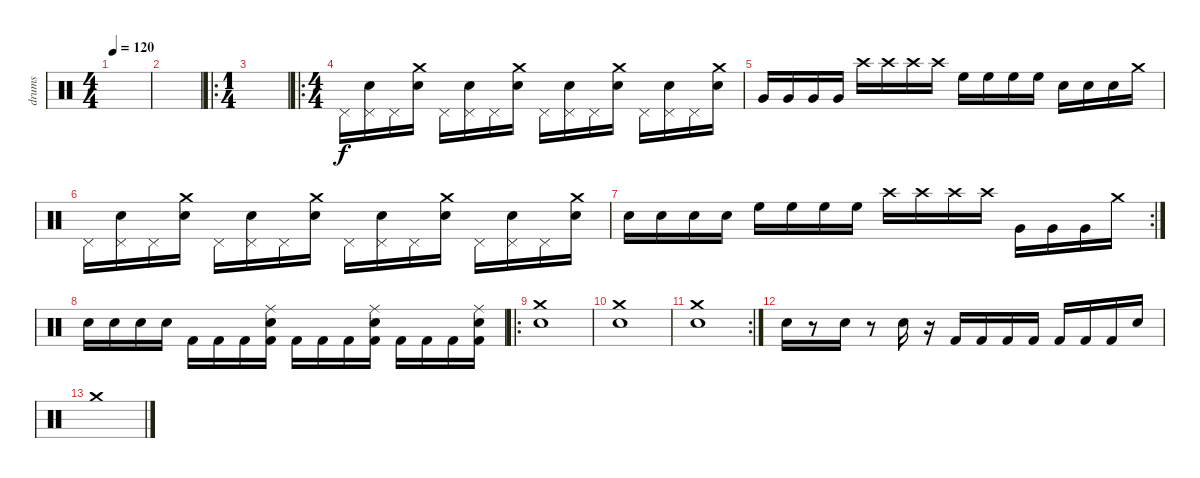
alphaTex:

\track ("drums" "drums") {instrument percussion}
\staff {score}
\articulation defaults
\ts (4 4)
\tempo 120
\clef neutral
\ks c
|
|
\ro
\ts (1 4)
|
\ro
\ts (4 4)
"Pedal Hi-Hat (hit)".16 ("Electric Snare (hit)" "Pedal Hi-Hat (hit)").16 "Pedal Hi-Hat (hit)".16 ("Snare (hit) 2" "Crash medium (hit)").16 "Pedal Hi-Hat (hit)".16 ("Electric Snare (hit)" "Pedal Hi-Hat (hit)").16 "Pedal Hi-Hat (hit)".16 ("Snare (hit) 2" "Crash medium (hit)").16 "Pedal Hi-Hat (hit)".16 ("Electric Snare (hit)" "Pedal Hi-Hat (hit)").16 "Pedal Hi-Hat (hit)".16 ("Snare (hit) 2" "Crash medium (hit)").16 "Pedal Hi-Hat (hit)".16 ("Electric Snare (hit)" "Pedal Hi-Hat (hit)").16 "Pedal Hi-Hat (hit)".16 ("Snare (hit) 2" "Crash medium (hit)").16 |
"Very Low Tom (hit)".16 "Very Low Tom (hit)".16 "Very Low Tom (hit)".16 "Very Low Tom (hit)".16 "Crash high (hit)".16 "Crash high (hit)".16 "Crash high (hit)".16 "Crash high (hit)".16 "High Floor Tom (hit)".16 "High Floor Tom (hit)".16 "High Floor Tom (hit)".16 "High Floor Tom (hit)".16 "Electric Snare (hit)".16 "Electric Snare (hit)".16 "Electric Snare (hit)".16 "Crash medium (hit)".16 |
"Pedal Hi-Hat (hit)".16 ("Electric Snare (hit)" "Pedal Hi-Hat (hit)").16 "Pedal Hi-Hat (hit)".16 ("Snare (hit) 2" "Crash medium (hit)").16 "Pedal Hi-Hat (hit)".16 ("Electric Snare (hit)" "Pedal Hi-Hat (hit)").16 "Pedal Hi-Hat (hit)".16 ("Snare (hit) 2" "Crash medium (hit)").16 "Pedal Hi-Hat (hit)".16 ("Electric Snare (hit)" "Pedal Hi-Hat (hit)").16 "Pedal Hi-Hat (hit)".16 ("Snare (hit) 2" "Crash medium (hit)").16 "Pedal Hi-Hat (hit)".16 ("Electric Snare (hit)" "Pedal Hi-Hat (hit)").16 "Pedal Hi-Hat (hit)".16 ("Snare (hit) 2" "Crash medium (hit)").16 |
\rc 2 "Electric Snare (hit)".16 "Electric Snare (hit)".16 "Electric Snare (hit)".16 "Electric Snare (hit)".16 "High Floor Tom (hit)".16 "High Floor Tom (hit)".16 "High Floor Tom (hit)".16 "High Floor Tom (hit)".16 "Crash high (hit)".16 "Crash high (hit)".16 "Crash high (hit)".16 "Crash high (hit)".16 "Very Low Tom (hit)".16 "Very Low Tom (hit)".16 "Very Low Tom (hit)".16 "Crash medium (hit)".16
|
"Snare (hit) 2".16 "Electric Snare (hit)".16 "Snare (hit) 2".16 "Electric Snare (hit)".16 "Kick (hit) 2".16 "Kick (hit) 2".16 "Kick (hit) 2".16 ("Kick (hit) 2" "Ride (middle)" "Electric Snare (hit)").16 "Kick (hit) 2".16 "Kick (hit) 2".16 "Kick (hit) 2".16 ("Kick (hit) 2" "Ride (middle)" "Electric Snare (hit)").16 "Kick (hit) 2".16 "Kick (hit) 2".16 "Kick (hit) 2".16 ("Kick (hit) 2" "Ride (middle)" "Electric Snare (hit)").16 |
\ro
("Electric Snare (hit)" "Crash medium (hit)").1 |
("Electric Snare (hit)" "Crash medium (hit)").1 |
\rc 2
("Electric Snare (hit)" "Crash medium (hit)").1 |
"Electric Snare (hit)".16 r.8 "Electric Snare (hit)".16 r.8 "Electric Snare (hit)".16 r.16 "Kick (hit) 2".16 "Kick (hit) 2".16 "Kick (hit) 2".16 "Kick (hit) 2".16 "Kick (hit) 2".16 "Kick (hit) 2".16 "Kick (hit) 2".16 "Snare (hit) 2".16 |
"Crash medium (hit)".1
